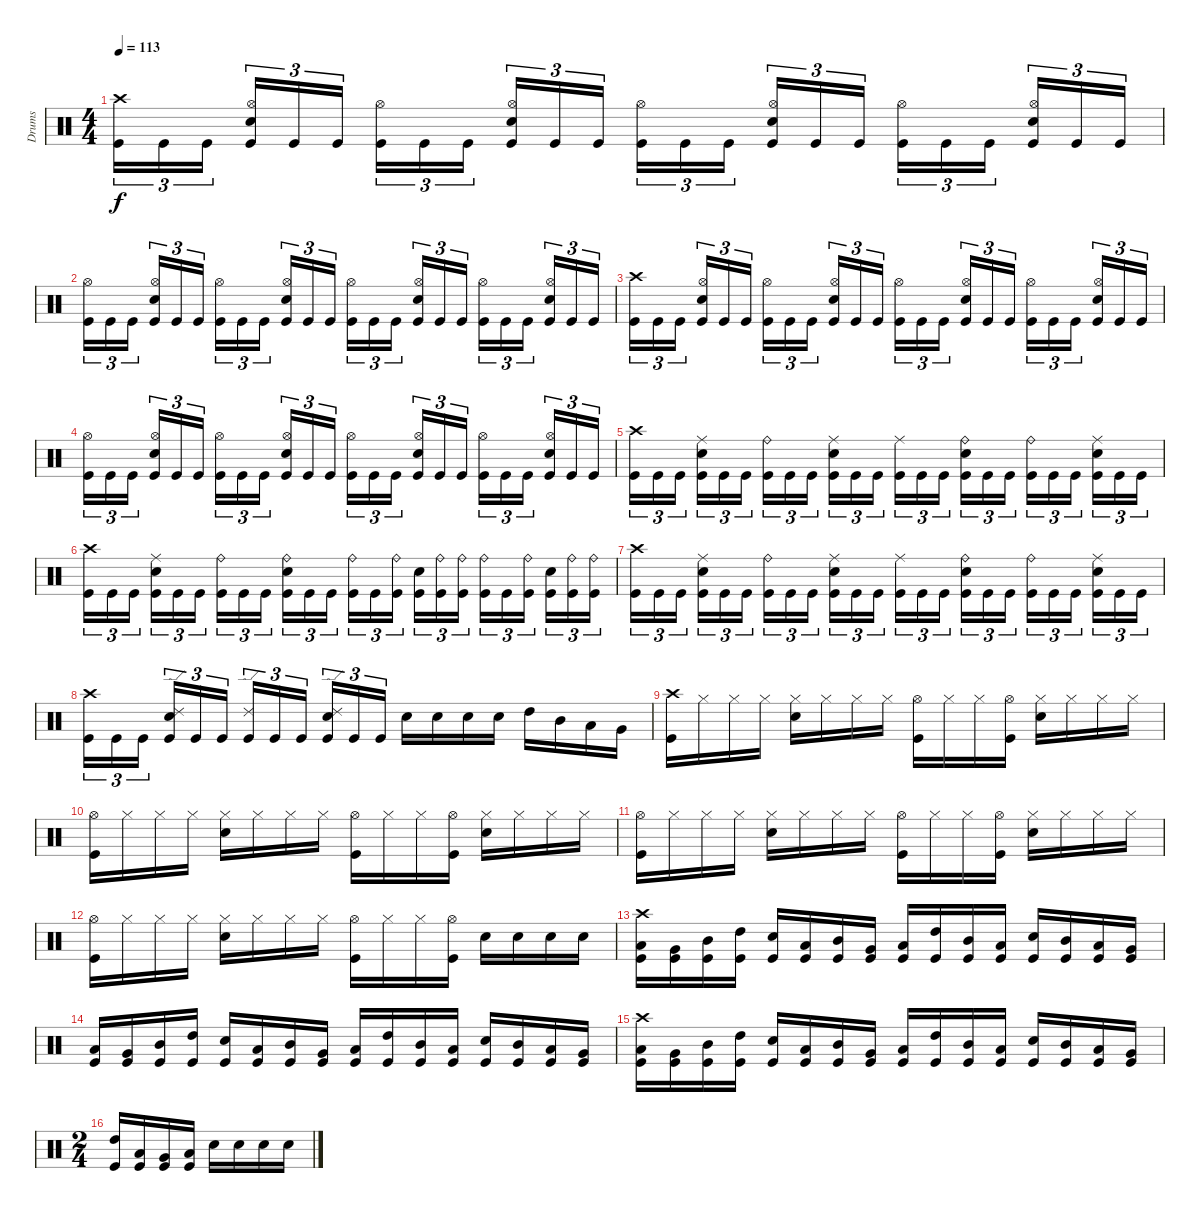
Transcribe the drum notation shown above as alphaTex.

\track ("Drums" "Drums") {instrument percussion}
\staff {score}
\articulation defaults
\ts (4 4)
\tempo 113
\clef neutral
\ks c
("Crash high (hit)" "Kick (hit)").16{tu (3 2) dy f} "Kick (hit)".16{tu (3 2)} "Kick (hit)".16{tu (3 2) beam splitsecondary} ("Hi-Hat (open)" "Electric Snare (hit)" "Kick (hit)").16{tu (3 2)} "Kick (hit)".16{tu (3 2)} "Kick (hit)".16{tu (3 2)} ("Hi-Hat (open)" "Kick (hit)").16{tu (3 2)} "Kick (hit)".16{tu (3 2)} "Kick (hit)".16{tu (3 2) beam splitsecondary} ("Hi-Hat (open)" "Electric Snare (hit)" "Kick (hit)").16{tu (3 2)} "Kick (hit)".16{tu (3 2)} "Kick (hit)".16{tu (3 2)} ("Hi-Hat (open)" "Kick (hit)").16{tu (3 2)} "Kick (hit)".16{tu (3 2)} "Kick (hit)".16{tu (3 2) beam splitsecondary} ("Hi-Hat (open)" "Electric Snare (hit)" "Kick (hit)").16{tu (3 2)} "Kick (hit)".16{tu (3 2)} "Kick (hit)".16{tu (3 2)} ("Hi-Hat (open)" "Kick (hit)").16{tu (3 2)} "Kick (hit)".16{tu (3 2)} "Kick (hit)".16{tu (3 2) beam splitsecondary} ("Hi-Hat (open)" "Electric Snare (hit)" "Kick (hit)").16{tu (3 2)} "Kick (hit)".16{tu (3 2)} "Kick (hit)".16{tu (3 2)} |
("Hi-Hat (open)" "Kick (hit)").16{tu (3 2)} "Kick (hit)".16{tu (3 2)} "Kick (hit)".16{tu (3 2) beam splitsecondary} ("Hi-Hat (open)" "Electric Snare (hit)" "Kick (hit)").16{tu (3 2)} "Kick (hit)".16{tu (3 2)} "Kick (hit)".16{tu (3 2)} ("Hi-Hat (open)" "Kick (hit)").16{tu (3 2)} "Kick (hit)".16{tu (3 2)} "Kick (hit)".16{tu (3 2) beam splitsecondary} ("Hi-Hat (open)" "Electric Snare (hit)" "Kick (hit)").16{tu (3 2)} "Kick (hit)".16{tu (3 2)} "Kick (hit)".16{tu (3 2)} ("Hi-Hat (open)" "Kick (hit)").16{tu (3 2)} "Kick (hit)".16{tu (3 2)} "Kick (hit)".16{tu (3 2) beam splitsecondary} ("Hi-Hat (open)" "Electric Snare (hit)" "Kick (hit)").16{tu (3 2)} "Kick (hit)".16{tu (3 2)} "Kick (hit)".16{tu (3 2)} ("Hi-Hat (open)" "Kick (hit)").16{tu (3 2)} "Kick (hit)".16{tu (3 2)} "Kick (hit)".16{tu (3 2) beam splitsecondary} ("Hi-Hat (open)" "Electric Snare (hit)" "Kick (hit)").16{tu (3 2)} "Kick (hit)".16{tu (3 2)} "Kick (hit)".16{tu (3 2)} |
("Crash high (hit)" "Kick (hit)").16{tu (3 2)} "Kick (hit)".16{tu (3 2)} "Kick (hit)".16{tu (3 2) beam splitsecondary} ("Hi-Hat (open)" "Electric Snare (hit)" "Kick (hit)").16{tu (3 2)} "Kick (hit)".16{tu (3 2)} "Kick (hit)".16{tu (3 2)} ("Hi-Hat (open)" "Kick (hit)").16{tu (3 2)} "Kick (hit)".16{tu (3 2)} "Kick (hit)".16{tu (3 2) beam splitsecondary} ("Hi-Hat (open)" "Electric Snare (hit)" "Kick (hit)").16{tu (3 2)} "Kick (hit)".16{tu (3 2)} "Kick (hit)".16{tu (3 2)} ("Hi-Hat (open)" "Kick (hit)").16{tu (3 2)} "Kick (hit)".16{tu (3 2)} "Kick (hit)".16{tu (3 2) beam splitsecondary} ("Hi-Hat (open)" "Electric Snare (hit)" "Kick (hit)").16{tu (3 2)} "Kick (hit)".16{tu (3 2)} "Kick (hit)".16{tu (3 2)} ("Hi-Hat (open)" "Kick (hit)").16{tu (3 2)} "Kick (hit)".16{tu (3 2)} "Kick (hit)".16{tu (3 2) beam splitsecondary} ("Hi-Hat (open)" "Electric Snare (hit)" "Kick (hit)").16{tu (3 2)} "Kick (hit)".16{tu (3 2)} "Kick (hit)".16{tu (3 2)} |
("Hi-Hat (open)" "Kick (hit)").16{tu (3 2)} "Kick (hit)".16{tu (3 2)} "Kick (hit)".16{tu (3 2) beam splitsecondary} ("Hi-Hat (open)" "Electric Snare (hit)" "Kick (hit)").16{tu (3 2)} "Kick (hit)".16{tu (3 2)} "Kick (hit)".16{tu (3 2)} ("Hi-Hat (open)" "Kick (hit)").16{tu (3 2)} "Kick (hit)".16{tu (3 2)} "Kick (hit)".16{tu (3 2) beam splitsecondary} ("Hi-Hat (open)" "Electric Snare (hit)" "Kick (hit)").16{tu (3 2)} "Kick (hit)".16{tu (3 2)} "Kick (hit)".16{tu (3 2)} ("Hi-Hat (open)" "Kick (hit)").16{tu (3 2)} "Kick (hit)".16{tu (3 2)} "Kick (hit)".16{tu (3 2) beam splitsecondary} ("Hi-Hat (open)" "Electric Snare (hit)" "Kick (hit)").16{tu (3 2)} "Kick (hit)".16{tu (3 2)} "Kick (hit)".16{tu (3 2)} ("Hi-Hat (open)" "Kick (hit)").16{tu (3 2)} "Kick (hit)".16{tu (3 2)} "Kick (hit)".16{tu (3 2) beam splitsecondary} ("Hi-Hat (open)" "Electric Snare (hit)" "Kick (hit)").16{tu (3 2)} "Kick (hit)".16{tu (3 2)} "Kick (hit)".16{tu (3 2)} |
("Crash high (hit)" "Kick (hit)").16{tu (3 2)} "Kick (hit)".16{tu (3 2)} "Kick (hit)".16{tu (3 2) beam splitsecondary} ("Ride (middle)" "Electric Snare (hit)" "Kick (hit)").16{tu (3 2)} "Kick (hit)".16{tu (3 2)} "Kick (hit)".16{tu (3 2)} ("Ride (bell)" "Kick (hit)").16{tu (3 2)} "Kick (hit)".16{tu (3 2)} "Kick (hit)".16{tu (3 2) beam splitsecondary} ("Ride (middle)" "Electric Snare (hit)" "Kick (hit)").16{tu (3 2)} "Kick (hit)".16{tu (3 2)} "Kick (hit)".16{tu (3 2)} ("Ride (middle)" "Kick (hit)").16{tu (3 2)} "Kick (hit)".16{tu (3 2)} "Kick (hit)".16{tu (3 2) beam splitsecondary} ("Ride (bell)" "Electric Snare (hit)" "Kick (hit)").16{tu (3 2)} "Kick (hit)".16{tu (3 2)} "Kick (hit)".16{tu (3 2)} ("Ride (bell)" "Kick (hit)").16{tu (3 2)} "Kick (hit)".16{tu (3 2)} "Kick (hit)".16{tu (3 2) beam splitsecondary} ("Ride (middle)" "Electric Snare (hit)" "Kick (hit)").16{tu (3 2)} "Kick (hit)".16{tu (3 2)} "Kick (hit)".16{tu (3 2)} |
("Crash high (hit)" "Kick (hit)").16{tu (3 2)} "Kick (hit)".16{tu (3 2)} "Kick (hit)".16{tu (3 2) beam splitsecondary} ("Ride (middle)" "Electric Snare (hit)" "Kick (hit)").16{tu (3 2)} "Kick (hit)".16{tu (3 2)} "Kick (hit)".16{tu (3 2)} ("Ride (bell)" "Kick (hit)").16{tu (3 2)} "Kick (hit)".16{tu (3 2)} "Kick (hit)".16{tu (3 2) beam splitsecondary} ("Ride (bell)" "Electric Snare (hit)" "Kick (hit)").16{tu (3 2)} "Kick (hit)".16{tu (3 2)} "Kick (hit)".16{tu (3 2)} ("Ride (bell)" "Kick (hit)").16{tu (3 2)} "Kick (hit)".16{tu (3 2)} ("Ride (bell)" "Kick (hit)").16{tu (3 2) beam splitsecondary} ("Electric Snare (hit)" "Kick (hit)").16{tu (3 2)} ("Ride (bell)" "Kick (hit)").16{tu (3 2)} ("Ride (bell)" "Kick (hit)").16{tu (3 2)} ("Ride (bell)" "Kick (hit)").16{tu (3 2)} "Kick (hit)".16{tu (3 2)} ("Ride (bell)" "Kick (hit)").16{tu (3 2) beam splitsecondary} ("Electric Snare (hit)" "Kick (hit)").16{tu (3 2)} ("Ride (bell)" "Kick (hit)").16{tu (3 2)} ("Ride (bell)" "Kick (hit)").16{tu (3 2)} |
("Crash high (hit)" "Kick (hit)").16{tu (3 2)} "Kick (hit)".16{tu (3 2)} "Kick (hit)".16{tu (3 2) beam splitsecondary} ("Ride (middle)" "Electric Snare (hit)" "Kick (hit)").16{tu (3 2)} "Kick (hit)".16{tu (3 2)} "Kick (hit)".16{tu (3 2)} ("Ride (bell)" "Kick (hit)").16{tu (3 2)} "Kick (hit)".16{tu (3 2)} "Kick (hit)".16{tu (3 2) beam splitsecondary} ("Ride (middle)" "Electric Snare (hit)" "Kick (hit)").16{tu (3 2)} "Kick (hit)".16{tu (3 2)} "Kick (hit)".16{tu (3 2)} ("Ride (middle)" "Kick (hit)").16{tu (3 2)} "Kick (hit)".16{tu (3 2)} "Kick (hit)".16{tu (3 2) beam splitsecondary} ("Ride (bell)" "Electric Snare (hit)" "Kick (hit)").16{tu (3 2)} "Kick (hit)".16{tu (3 2)} "Kick (hit)".16{tu (3 2)} ("Ride (bell)" "Kick (hit)").16{tu (3 2)} "Kick (hit)".16{tu (3 2)} "Kick (hit)".16{tu (3 2) beam splitsecondary} ("Ride (middle)" "Electric Snare (hit)" "Kick (hit)").16{tu (3 2)} "Kick (hit)".16{tu (3 2)} "Kick (hit)".16{tu (3 2)} |
("Crash high (hit)" "Kick (hit)").16{tu (3 2)} "Kick (hit)".16{tu (3 2)} "Kick (hit)".16{tu (3 2) beam splitsecondary} ("Ride (edge) 2" "Electric Snare (hit)" "Kick (hit)").16{tu (3 2)} "Kick (hit)".16{tu (3 2)} "Kick (hit)".16{tu (3 2)} ("Ride (edge) 2" "Kick (hit)").16{tu (3 2)} "Kick (hit)".16{tu (3 2)} "Kick (hit)".16{tu (3 2) beam splitsecondary} ("Ride (edge) 2" "Electric Snare (hit)" "Kick (hit)").16{tu (3 2)} "Kick (hit)".16{tu (3 2)} "Kick (hit)".16{tu (3 2)} "Electric Snare (hit)".16 "Electric Snare (hit)".16 "Electric Snare (hit)".16 "Electric Snare (hit)".16 "High Tom (hit)".16 "Mid Tom (hit)".16 "Low Tom (hit)".16 "Very Low Tom (hit)".16 |
("Crash high (hit)" "Kick (hit)").16 "Hi-Hat (closed)".16 "Hi-Hat (closed)".16 "Hi-Hat (closed)".16 ("Hi-Hat (closed)" "Electric Snare (hit)").16 "Hi-Hat (closed)".16 "Hi-Hat (closed)".16 "Hi-Hat (closed)".16 ("Hi-Hat (open)" "Kick (hit)").16 "Hi-Hat (closed)".16 "Hi-Hat (closed)".16 ("Hi-Hat (open)" "Kick (hit)").16 ("Hi-Hat (closed)" "Electric Snare (hit)").16 "Hi-Hat (closed)".16 "Hi-Hat (closed)".16 "Hi-Hat (closed)".16 |
("Hi-Hat (open)" "Kick (hit)").16 "Hi-Hat (closed)".16 "Hi-Hat (closed)".16 "Hi-Hat (closed)".16 ("Hi-Hat (closed)" "Electric Snare (hit)").16 "Hi-Hat (closed)".16 "Hi-Hat (closed)".16 "Hi-Hat (closed)".16 ("Hi-Hat (open)" "Kick (hit)").16 "Hi-Hat (closed)".16 "Hi-Hat (closed)".16 ("Hi-Hat (open)" "Kick (hit)").16 ("Hi-Hat (closed)" "Electric Snare (hit)").16 "Hi-Hat (closed)".16 "Hi-Hat (closed)".16 "Hi-Hat (closed)".16 |
("Hi-Hat (open)" "Kick (hit)").16 "Hi-Hat (closed)".16 "Hi-Hat (closed)".16 "Hi-Hat (closed)".16 ("Hi-Hat (closed)" "Electric Snare (hit)").16 "Hi-Hat (closed)".16 "Hi-Hat (closed)".16 "Hi-Hat (closed)".16 ("Hi-Hat (open)" "Kick (hit)").16 "Hi-Hat (closed)".16 "Hi-Hat (closed)".16 ("Hi-Hat (open)" "Kick (hit)").16 ("Hi-Hat (closed)" "Electric Snare (hit)").16 "Hi-Hat (closed)".16 "Hi-Hat (closed)".16 "Hi-Hat (closed)".16 |
("Hi-Hat (open)" "Kick (hit)").16 "Hi-Hat (closed)".16 "Hi-Hat (closed)".16 "Hi-Hat (closed)".16 ("Hi-Hat (closed)" "Electric Snare (hit)").16 "Hi-Hat (closed)".16 "Hi-Hat (closed)".16 "Hi-Hat (closed)".16 ("Hi-Hat (open)" "Kick (hit)").16 "Hi-Hat (closed)".16 "Hi-Hat (closed)".16 ("Hi-Hat (open)" "Kick (hit)").16 "Electric Snare (hit)".16 "Electric Snare (hit)".16 "Electric Snare (hit)".16 "Electric Snare (hit)".16 |
("Crash high (hit)" "Low Tom (hit)" "Kick (hit)").16 ("Very Low Tom (hit)" "Kick (hit)").16 ("Mid Tom (hit)" "Kick (hit)").16 ("High Tom (hit)" "Kick (hit)").16 ("Electric Snare (hit)" "Kick (hit)").16 ("Low Tom (hit)" "Kick (hit)").16 ("Mid Tom (hit)" "Kick (hit)").16 ("Very Low Tom (hit)" "Kick (hit)").16 ("Low Tom (hit)" "Kick (hit)").16 ("High Tom (hit)" "Kick (hit)").16 ("Mid Tom (hit)" "Kick (hit)").16 ("Low Floor Tom (hit)" "Kick (hit)").16 ("Electric Snare (hit)" "Kick (hit)").16 ("Mid Tom (hit)" "Kick (hit)").16 ("Low Tom (hit)" "Kick (hit)").16 ("Very Low Tom (hit)" "Kick (hit)").16 |
("Low Tom (hit)" "Kick (hit)").16 ("Very Low Tom (hit)" "Kick (hit)").16 ("Mid Tom (hit)" "Kick (hit)").16 ("High Tom (hit)" "Kick (hit)").16 ("Electric Snare (hit)" "Kick (hit)").16 ("Low Tom (hit)" "Kick (hit)").16 ("Mid Tom (hit)" "Kick (hit)").16 ("Very Low Tom (hit)" "Kick (hit)").16 ("Low Tom (hit)" "Kick (hit)").16 ("High Tom (hit)" "Kick (hit)").16 ("Mid Tom (hit)" "Kick (hit)").16 ("Low Floor Tom (hit)" "Kick (hit)").16 ("Electric Snare (hit)" "Kick (hit)").16 ("Mid Tom (hit)" "Kick (hit)").16 ("Low Tom (hit)" "Kick (hit)").16 ("Very Low Tom (hit)" "Kick (hit)").16 |
("Crash high (hit)" "Low Tom (hit)" "Kick (hit)").16 ("Very Low Tom (hit)" "Kick (hit)").16 ("Mid Tom (hit)" "Kick (hit)").16 ("High Tom (hit)" "Kick (hit)").16 ("Electric Snare (hit)" "Kick (hit)").16 ("Low Tom (hit)" "Kick (hit)").16 ("Mid Tom (hit)" "Kick (hit)").16 ("Very Low Tom (hit)" "Kick (hit)").16 ("Low Tom (hit)" "Kick (hit)").16 ("High Tom (hit)" "Kick (hit)").16 ("Mid Tom (hit)" "Kick (hit)").16 ("Low Floor Tom (hit)" "Kick (hit)").16 ("Electric Snare (hit)" "Kick (hit)").16 ("Mid Tom (hit)" "Kick (hit)").16 ("Low Tom (hit)" "Kick (hit)").16 ("Very Low Tom (hit)" "Kick (hit)").16 |
\ts (2 4)
("High Tom (hit)" "Kick (hit)").16 ("Low Tom (hit)" "Kick (hit)").16 ("Very Low Tom (hit)" "Kick (hit)").16 ("Low Floor Tom (hit)" "Kick (hit)").16 "Electric Snare (hit)".16 "Electric Snare (hit)".16 "Electric Snare (hit)".16 "Electric Snare (hit)".16
